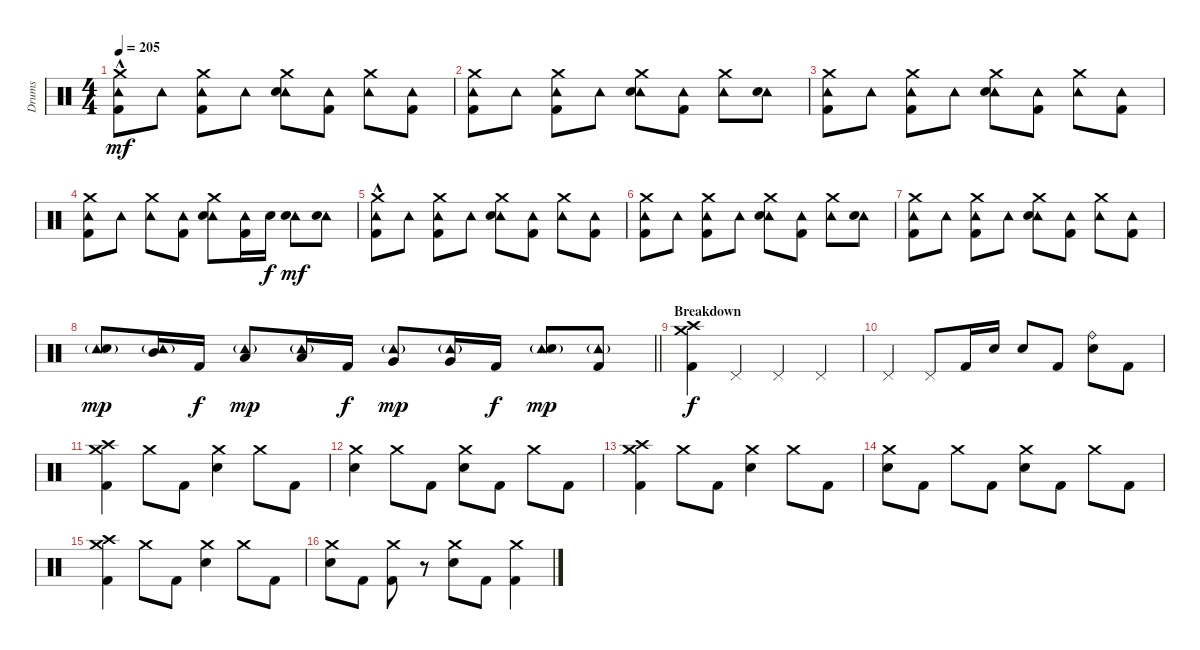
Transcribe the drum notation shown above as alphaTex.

\track ("Drums" "Drums") {instrument percussion}
\staff {score}
\articulation defaults
\ts (4 4)
\tempo 205
\clef neutral
\ks c
("Crash medium (hit)"{hac} "Tambourine (hit)" "Kick (hit) 2").8{dy mf} "Tambourine (hit)".8 ("Crash medium (hit)" "Tambourine (hit)" "Kick (hit) 2").8 "Tambourine (hit)".8 ("Crash medium (hit)" "Tambourine (hit)" "Electric Snare (hit)").8 ("Tambourine (hit)" "Kick (hit) 2").8 ("Crash medium (hit)" "Tambourine (hit)").8 ("Tambourine (hit)" "Kick (hit) 2").8 |
("Crash medium (hit)" "Tambourine (hit)" "Kick (hit) 2").8 "Tambourine (hit)".8 ("Crash medium (hit)" "Tambourine (hit)" "Kick (hit) 2").8 "Tambourine (hit)".8 ("Crash medium (hit)" "Tambourine (hit)" "Electric Snare (hit)").8 ("Tambourine (hit)" "Kick (hit) 2").8 ("Crash medium (hit)" "Tambourine (hit)").8 ("Tambourine (hit)" "Electric Snare (hit)").8 |
("Crash medium (hit)" "Tambourine (hit)" "Kick (hit) 2").8 "Tambourine (hit)".8 ("Crash medium (hit)" "Tambourine (hit)" "Kick (hit) 2").8 "Tambourine (hit)".8 ("Crash medium (hit)" "Tambourine (hit)" "Electric Snare (hit)").8 ("Tambourine (hit)" "Kick (hit) 2").8 ("Crash medium (hit)" "Tambourine (hit)").8 ("Tambourine (hit)" "Kick (hit) 2").8 |
("Crash medium (hit)" "Tambourine (hit)" "Kick (hit) 2").8 "Tambourine (hit)".8 ("Crash medium (hit)" "Tambourine (hit)").8 ("Tambourine (hit)" "Kick (hit) 2").8 ("Crash medium (hit)" "Tambourine (hit)" "Electric Snare (hit)").8 ("Tambourine (hit)" "Kick (hit) 2").16 "Electric Snare (hit)".16{dy f} ("Tambourine (hit)" "Electric Snare (hit)").8{dy mf} ("Tambourine (hit)" "Electric Snare (hit)").8 |
("Crash medium (hit)"{hac} "Tambourine (hit)" "Kick (hit) 2").8 "Tambourine (hit)".8 ("Crash medium (hit)" "Tambourine (hit)" "Kick (hit) 2").8 "Tambourine (hit)".8 ("Crash medium (hit)" "Tambourine (hit)" "Electric Snare (hit)").8 ("Tambourine (hit)" "Kick (hit) 2").8 ("Crash medium (hit)" "Tambourine (hit)").8 ("Tambourine (hit)" "Kick (hit) 2").8 |
("Crash medium (hit)" "Tambourine (hit)" "Kick (hit) 2").8 "Tambourine (hit)".8 ("Crash medium (hit)" "Tambourine (hit)" "Kick (hit) 2").8 "Tambourine (hit)".8 ("Crash medium (hit)" "Tambourine (hit)" "Electric Snare (hit)").8 ("Tambourine (hit)" "Kick (hit) 2").8 ("Crash medium (hit)" "Tambourine (hit)").8 ("Tambourine (hit)" "Electric Snare (hit)").8 |
("Crash medium (hit)" "Tambourine (hit)" "Kick (hit) 2").8 "Tambourine (hit)".8 ("Crash medium (hit)" "Tambourine (hit)" "Kick (hit) 2").8 "Tambourine (hit)".8 ("Crash medium (hit)" "Tambourine (hit)" "Electric Snare (hit)").8 ("Tambourine (hit)" "Kick (hit) 2").8 ("Crash medium (hit)" "Tambourine (hit)").8 ("Tambourine (hit)" "Kick (hit) 2").8 |
\barLineRight lightlight
("Tambourine (hit)"{g} "Electric Snare (hit)").8{dy mp} ("Tambourine (hit)"{g} "Mid Tom (hit)").16 "Kick (hit) 2".16{dy f} ("Tambourine (hit)"{g} "Low Tom (hit)").8{dy mp} ("Tambourine (hit)"{g} "Low Tom (hit)").16 "Kick (hit) 2".16{dy f} ("Tambourine (hit)"{g} "Very Low Tom (hit)").8{dy mp} ("Tambourine (hit)"{g} "Very Low Tom (hit)").16 "Kick (hit) 2".16{dy f} ("Tambourine (hit)"{g} "Electric Snare (hit)").8{dy mp} ("Tambourine (hit)"{g} "Kick (hit) 2").8 |
\section ("" "Breakdown")
("Crash high (hit)" "Crash medium (hit)" "Kick (hit) 2").4{dy f} "Pedal Hi-Hat (hit)".4 "Pedal Hi-Hat (hit)".4 "Pedal Hi-Hat (hit)".4 |
"Pedal Hi-Hat (hit)".4 "Pedal Hi-Hat (hit)".8 "Kick (hit) 2".16 "Electric Snare (hit)".16 "Electric Snare (hit)".8 "Kick (hit) 2".8 ("Ride (bell)" "Electric Snare (hit)").8 "Kick (hit) 2".8 |
("Crash high (hit)" "Crash medium (hit)" "Kick (hit) 2").4 "Crash medium (hit)".8 "Kick (hit) 2".8 ("Crash medium (hit)" "Electric Snare (hit)").4 "Crash medium (hit)".8 "Kick (hit) 2".8 |
("Crash medium (hit)" "Electric Snare (hit)").4 "Crash medium (hit)".8 "Kick (hit) 2".8 ("Crash medium (hit)" "Electric Snare (hit)").8 "Kick (hit) 2".8 "Crash medium (hit)".8 "Kick (hit) 2".8 |
("Crash high (hit)" "Crash medium (hit)" "Kick (hit) 2").4 "Crash medium (hit)".8 "Kick (hit) 2".8 ("Crash medium (hit)" "Electric Snare (hit)").4 "Crash medium (hit)".8 "Kick (hit) 2".8 |
("Crash medium (hit)" "Electric Snare (hit)").8 "Kick (hit) 2".8 "Crash medium (hit)".8 "Kick (hit) 2".8 ("Crash medium (hit)" "Electric Snare (hit)").8 "Kick (hit) 2".8 "Crash medium (hit)".8 "Kick (hit) 2".8 |
("Crash high (hit)" "Crash medium (hit)" "Kick (hit) 2").4 "Crash medium (hit)".8 "Kick (hit) 2".8 ("Crash medium (hit)" "Electric Snare (hit)").4 "Crash medium (hit)".8 "Kick (hit) 2".8 |
("Crash medium (hit)" "Electric Snare (hit)").8 "Kick (hit) 2".8 ("Crash medium (hit)" "Kick (hit) 2").8 r.8 ("Crash medium (hit)" "Electric Snare (hit)").8 "Kick (hit) 2".8 ("Crash medium (hit)" "Kick (hit) 2").4
